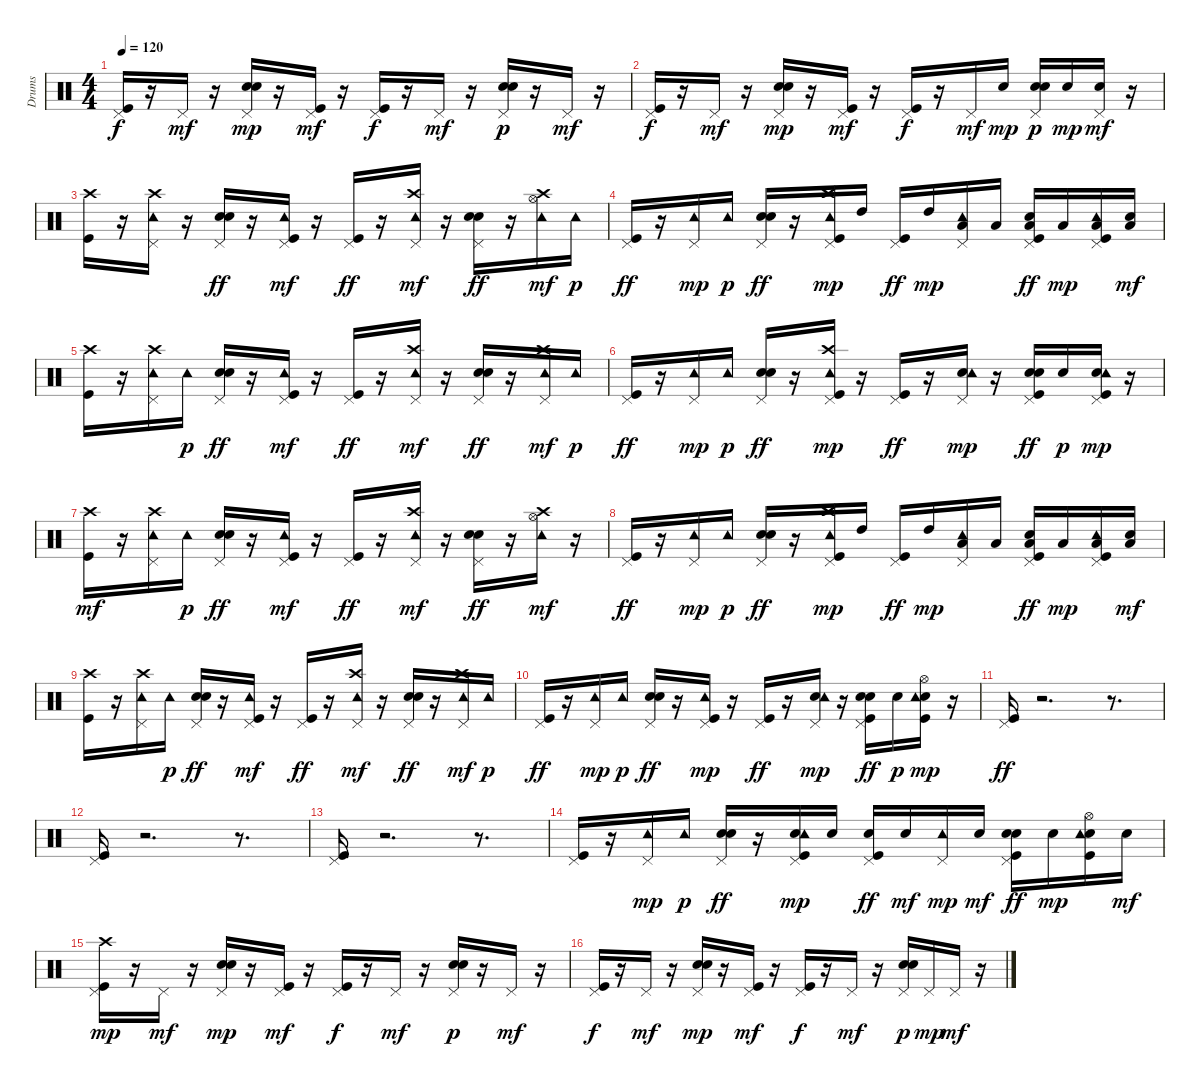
\track ("Drums   " "Drums   ") {instrument percussion}
\staff {score}
\articulation defaults
\ts (4 4)
\tempo 120
\clef neutral
\ks c
("Kick (hit)" "Pedal Hi-Hat (hit)").16{dy f} r.16 "Pedal Hi-Hat (hit)".16{dy mf} r.16 ("Electric Snare (hit)" "Pedal Hi-Hat (hit)" "Hand Clap (hit)").16{dy mp} r.16 ("Kick (hit)" "Pedal Hi-Hat (hit)").16{dy mf} r.16 ("Kick (hit)" "Pedal Hi-Hat (hit)").16{dy f} r.16 "Pedal Hi-Hat (hit)".16{dy mf} r.16 ("Electric Snare (hit)" "Pedal Hi-Hat (hit)" "Hand Clap (hit)").16{dy p} r.16 "Pedal Hi-Hat (hit)".16{dy mf} r.16 |
("Kick (hit)" "Pedal Hi-Hat (hit)").16{dy f} r.16 "Pedal Hi-Hat (hit)".16{dy mf} r.16 ("Electric Snare (hit)" "Pedal Hi-Hat (hit)" "Hand Clap (hit)").16{dy mp} r.16 ("Kick (hit)" "Pedal Hi-Hat (hit)").16{dy mf} r.16 ("Kick (hit)" "Pedal Hi-Hat (hit)").16{dy f} r.16 "Pedal Hi-Hat (hit)".16{dy mf} "Electric Snare (hit)".16{dy mp} ("Electric Snare (hit)" "Pedal Hi-Hat (hit)" "Hand Clap (hit)").16{dy p} "Electric Snare (hit)".16{dy mp} ("Electric Snare (hit)" "Pedal Hi-Hat (hit)").16{dy mf} r.16 |
("Kick (hit)" "Crash high (hit)").16 r.16 ("Crash high (hit)" "Pedal Hi-Hat (hit)" "Tambourine (hit)").16 r.16 ("Electric Snare (hit)" "Pedal Hi-Hat (hit)" "Hand Clap (hit)").16{dy ff} r.16 ("Kick (hit)" "Pedal Hi-Hat (hit)" "Tambourine (hit)").16{dy mf} r.16 ("Kick (hit)" "Pedal Hi-Hat (hit)").16{dy ff} r.16 ("Crash high (hit)" "Pedal Hi-Hat (hit)" "Tambourine (hit)").16{dy mf} r.16 ("Electric Snare (hit)" "Pedal Hi-Hat (hit)" "Hand Clap (hit)").16{dy ff} r.16 ("Hi-Hat (open)" "Crash high (hit)" "Tambourine (hit)").16{dy mf} "Tambourine (hit)".16{dy p} |
("Kick (hit)" "Pedal Hi-Hat (hit)").16{dy ff} r.16 ("Pedal Hi-Hat (hit)" "Tambourine (hit)").16{dy mp} "Tambourine (hit)".16{dy p} ("Electric Snare (hit)" "Pedal Hi-Hat (hit)" "Hand Clap (hit)").16{dy ff} r.16 ("Kick (hit)" "Crash high (hit)" "Pedal Hi-Hat (hit)" "Tambourine (hit)").16{dy mp} "High Tom (hit)".16 ("Kick (hit)" "Pedal Hi-Hat (hit)").16{dy ff} "High Tom (hit)".16{dy mp} ("Low Tom (hit)" "Pedal Hi-Hat (hit)" "Tambourine (hit)").16 "Low Tom (hit)".16 ("Kick (hit)" "Low Tom (hit)" "Pedal Hi-Hat (hit)" "Hand Clap (hit)").16{dy ff} "Low Tom (hit)".16{dy mp} ("Kick (hit)" "Low Floor Tom (hit)" "Pedal Hi-Hat (hit)" "Tambourine (hit)").16 ("Low Floor Tom (hit)" "Electric Snare (hit)").16{dy mf} |
("Kick (hit)" "Crash high (hit)").16 r.16 ("Crash high (hit)" "Pedal Hi-Hat (hit)" "Tambourine (hit)").16 "Tambourine (hit)".16{dy p} ("Electric Snare (hit)" "Pedal Hi-Hat (hit)" "Hand Clap (hit)").16{dy ff} r.16 ("Kick (hit)" "Pedal Hi-Hat (hit)" "Tambourine (hit)").16{dy mf} r.16 ("Kick (hit)" "Pedal Hi-Hat (hit)").16{dy ff} r.16 ("Crash high (hit)" "Pedal Hi-Hat (hit)" "Tambourine (hit)").16{dy mf} r.16 ("Electric Snare (hit)" "Pedal Hi-Hat (hit)" "Hand Clap (hit)").16{dy ff} r.16 ("Crash high (hit)" "Pedal Hi-Hat (hit)" "Tambourine (hit)").16{dy mf} "Tambourine (hit)".16{dy p} |
("Kick (hit)" "Pedal Hi-Hat (hit)").16{dy ff} r.16 ("Pedal Hi-Hat (hit)" "Tambourine (hit)").16{dy mp} "Tambourine (hit)".16{dy p} ("Electric Snare (hit)" "Pedal Hi-Hat (hit)" "Hand Clap (hit)").16{dy ff} r.16 ("Kick (hit)" "Crash high (hit)" "Pedal Hi-Hat (hit)" "Tambourine (hit)").16{dy mp} r.16 ("Kick (hit)" "Pedal Hi-Hat (hit)").16{dy ff} r.16 ("Electric Snare (hit)" "Pedal Hi-Hat (hit)" "Tambourine (hit)").16{dy mp} r.16 ("Kick (hit)" "Electric Snare (hit)" "Pedal Hi-Hat (hit)" "Hand Clap (hit)").16{dy ff} "Electric Snare (hit)".16{dy p} ("Kick (hit)" "Electric Snare (hit)" "Pedal Hi-Hat (hit)" "Tambourine (hit)").16{dy mp} r.16 |
("Kick (hit)" "Crash high (hit)").16{dy mf} r.16 ("Crash high (hit)" "Pedal Hi-Hat (hit)" "Tambourine (hit)").16 "Tambourine (hit)".16{dy p} ("Electric Snare (hit)" "Pedal Hi-Hat (hit)" "Hand Clap (hit)").16{dy ff} r.16 ("Kick (hit)" "Pedal Hi-Hat (hit)" "Tambourine (hit)").16{dy mf} r.16 ("Kick (hit)" "Pedal Hi-Hat (hit)").16{dy ff} r.16 ("Crash high (hit)" "Pedal Hi-Hat (hit)" "Tambourine (hit)").16{dy mf} r.16 ("Electric Snare (hit)" "Pedal Hi-Hat (hit)" "Hand Clap (hit)").16{dy ff} r.16 ("Hi-Hat (open)" "Crash high (hit)" "Tambourine (hit)").16{dy mf} r.16 |
("Kick (hit)" "Pedal Hi-Hat (hit)").16{dy ff} r.16 ("Pedal Hi-Hat (hit)" "Tambourine (hit)").16{dy mp} "Tambourine (hit)".16{dy p} ("Electric Snare (hit)" "Pedal Hi-Hat (hit)" "Hand Clap (hit)").16{dy ff} r.16 ("Kick (hit)" "Crash high (hit)" "Pedal Hi-Hat (hit)" "Tambourine (hit)").16{dy mp} "High Tom (hit)".16 ("Kick (hit)" "Pedal Hi-Hat (hit)").16{dy ff} "High Tom (hit)".16{dy mp} ("Low Tom (hit)" "Pedal Hi-Hat (hit)" "Tambourine (hit)").16 "Low Tom (hit)".16 ("Kick (hit)" "Low Tom (hit)" "Pedal Hi-Hat (hit)" "Hand Clap (hit)").16{dy ff} "Low Tom (hit)".16{dy mp} ("Kick (hit)" "Low Floor Tom (hit)" "Pedal Hi-Hat (hit)" "Tambourine (hit)").16 ("Low Floor Tom (hit)" "Electric Snare (hit)").16{dy mf} |
("Kick (hit)" "Crash high (hit)").16 r.16 ("Crash high (hit)" "Pedal Hi-Hat (hit)" "Tambourine (hit)").16 "Tambourine (hit)".16{dy p} ("Electric Snare (hit)" "Pedal Hi-Hat (hit)" "Hand Clap (hit)").16{dy ff} r.16 ("Kick (hit)" "Pedal Hi-Hat (hit)" "Tambourine (hit)").16{dy mf} r.16 ("Kick (hit)" "Pedal Hi-Hat (hit)").16{dy ff} r.16 ("Crash high (hit)" "Pedal Hi-Hat (hit)" "Tambourine (hit)").16{dy mf} r.16 ("Electric Snare (hit)" "Pedal Hi-Hat (hit)" "Hand Clap (hit)").16{dy ff} r.16 ("Crash high (hit)" "Pedal Hi-Hat (hit)" "Tambourine (hit)").16{dy mf} "Tambourine (hit)".16{dy p} |
("Kick (hit)" "Pedal Hi-Hat (hit)").16{dy ff} r.16 ("Pedal Hi-Hat (hit)" "Tambourine (hit)").16{dy mp} "Tambourine (hit)".16{dy p} ("Electric Snare (hit)" "Pedal Hi-Hat (hit)" "Hand Clap (hit)").16{dy ff} r.16 ("Kick (hit)" "Pedal Hi-Hat (hit)" "Tambourine (hit)").16{dy mp} r.16 ("Kick (hit)" "Pedal Hi-Hat (hit)").16{dy ff} r.16 ("Electric Snare (hit)" "Pedal Hi-Hat (hit)" "Tambourine (hit)").16{dy mp} r.16 ("Kick (hit)" "Electric Snare (hit)" "Pedal Hi-Hat (hit)" "Hand Clap (hit)").16{dy ff} "Electric Snare (hit)".16{dy p} ("Kick (hit)" "Hi-Hat (open)" "Electric Snare (hit)" "Tambourine (hit)").16{dy mp} r.16 |
("Kick (hit)" "Pedal Hi-Hat (hit)").16{dy ff} r.2{d} r.8{d} |
("Kick (hit)" "Pedal Hi-Hat (hit)").16 r.2{d} r.8{d} |
("Kick (hit)" "Pedal Hi-Hat (hit)").16 r.2{d} r.8{d} |
("Kick (hit)" "Pedal Hi-Hat (hit)").16 r.16 ("Pedal Hi-Hat (hit)" "Tambourine (hit)").16{dy mp} "Tambourine (hit)".16{dy p} ("Electric Snare (hit)" "Pedal Hi-Hat (hit)" "Hand Clap (hit)").16{dy ff} r.16 ("Kick (hit)" "Electric Snare (hit)" "Pedal Hi-Hat (hit)" "Tambourine (hit)").16{dy mp} "Electric Snare (hit)".16 ("Kick (hit)" "Electric Snare (hit)" "Pedal Hi-Hat (hit)").16{dy ff} "Electric Snare (hit)".16{dy mf} ("Pedal Hi-Hat (hit)" "Tambourine (hit)").16{dy mp} "Electric Snare (hit)".16{dy mf} ("Kick (hit)" "Electric Snare (hit)" "Pedal Hi-Hat (hit)" "Hand Clap (hit)").16{dy ff} "Electric Snare (hit)".16{dy mp} ("Kick (hit)" "Hi-Hat (open)" "Electric Snare (hit)" "Tambourine (hit)").16 "Electric Snare (hit)".16{dy mf} |
("Kick (hit)" "Crash high (hit)" "Pedal Hi-Hat (hit)").16{dy mp} r.16 "Pedal Hi-Hat (hit)".16{dy mf} r.16 ("Electric Snare (hit)" "Pedal Hi-Hat (hit)" "Hand Clap (hit)").16{dy mp} r.16 ("Kick (hit)" "Pedal Hi-Hat (hit)").16{dy mf} r.16 ("Kick (hit)" "Pedal Hi-Hat (hit)").16{dy f} r.16 "Pedal Hi-Hat (hit)".16{dy mf} r.16 ("Electric Snare (hit)" "Pedal Hi-Hat (hit)" "Hand Clap (hit)").16{dy p} r.16 "Pedal Hi-Hat (hit)".16{dy mf} r.16 |
("Kick (hit)" "Pedal Hi-Hat (hit)").16{dy f} r.16 "Pedal Hi-Hat (hit)".16{dy mf} r.16 ("Electric Snare (hit)" "Pedal Hi-Hat (hit)" "Hand Clap (hit)").16{dy mp} r.16 ("Kick (hit)" "Pedal Hi-Hat (hit)").16{dy mf} r.16 ("Kick (hit)" "Pedal Hi-Hat (hit)").16{dy f} r.16 "Pedal Hi-Hat (hit)".16{dy mf} r.16 ("Electric Snare (hit)" "Pedal Hi-Hat (hit)" "Hand Clap (hit)").16{dy p} "Pedal Hi-Hat (hit)".16{dy mp} "Pedal Hi-Hat (hit)".16{dy mf} r.16
